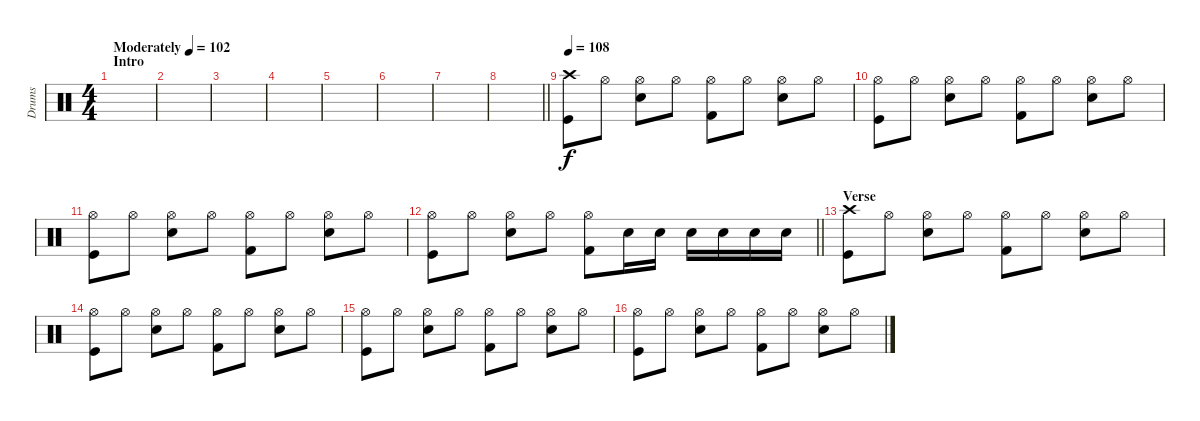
\track ("Drums" "Drums") {instrument percussion}
\staff {score}
\articulation defaults
\ts (4 4)
\section ("" "Intro")
\tempo (102 "Moderately")
\clef neutral
\ks c
|
|
|
|
|
|
|
\barLineRight lightlight
|
\tempo 108
("Crash high (hit)" "Kick (hit)").8 "Hi-Hat (open)".8 ("Hi-Hat (open)" "Snare (hit) 2").8 "Hi-Hat (open)".8 ("Hi-Hat (open)" "Kick (hit) 2").8 "Hi-Hat (open)".8 ("Hi-Hat (open)" "Snare (hit) 2").8 "Hi-Hat (open)".8 |
("Hi-Hat (open)" "Kick (hit)").8 "Hi-Hat (open)".8 ("Hi-Hat (open)" "Snare (hit) 2").8 "Hi-Hat (open)".8 ("Hi-Hat (open)" "Kick (hit) 2").8 "Hi-Hat (open)".8 ("Hi-Hat (open)" "Snare (hit) 2").8 "Hi-Hat (open)".8 |
("Hi-Hat (open)" "Kick (hit)").8 "Hi-Hat (open)".8 ("Hi-Hat (open)" "Snare (hit) 2").8 "Hi-Hat (open)".8 ("Hi-Hat (open)" "Kick (hit) 2").8 "Hi-Hat (open)".8 ("Hi-Hat (open)" "Snare (hit) 2").8 "Hi-Hat (open)".8 |
\barLineRight lightlight
("Hi-Hat (open)" "Kick (hit)").8 "Hi-Hat (open)".8 ("Hi-Hat (open)" "Snare (hit) 2").8 "Hi-Hat (open)".8 ("Hi-Hat (open)" "Kick (hit) 2").8 "Snare (hit) 2".16 "Snare (hit) 2".16 "Snare (hit) 2".16 "Snare (hit) 2".16 "Snare (hit) 2".16 "Snare (hit) 2".16 |
\section ("" "Verse")
("Crash high (hit)" "Kick (hit)").8 "Hi-Hat (open)".8 ("Hi-Hat (open)" "Snare (hit) 2").8 "Hi-Hat (open)".8 ("Hi-Hat (open)" "Kick (hit) 2").8 "Hi-Hat (open)".8 ("Hi-Hat (open)" "Snare (hit) 2").8 "Hi-Hat (open)".8 |
("Hi-Hat (open)" "Kick (hit)").8 "Hi-Hat (open)".8 ("Hi-Hat (open)" "Snare (hit) 2").8 "Hi-Hat (open)".8 ("Hi-Hat (open)" "Kick (hit) 2").8 "Hi-Hat (open)".8 ("Hi-Hat (open)" "Snare (hit) 2").8 "Hi-Hat (open)".8 |
("Hi-Hat (open)" "Kick (hit)").8 "Hi-Hat (open)".8 ("Hi-Hat (open)" "Snare (hit) 2").8 "Hi-Hat (open)".8 ("Hi-Hat (open)" "Kick (hit) 2").8 "Hi-Hat (open)".8 ("Hi-Hat (open)" "Snare (hit) 2").8 "Hi-Hat (open)".8 |
("Hi-Hat (open)" "Kick (hit)").8 "Hi-Hat (open)".8 ("Hi-Hat (open)" "Snare (hit) 2").8 "Hi-Hat (open)".8 ("Hi-Hat (open)" "Kick (hit) 2").8 "Hi-Hat (open)".8 ("Hi-Hat (open)" "Snare (hit) 2").8 "Hi-Hat (open)".8
